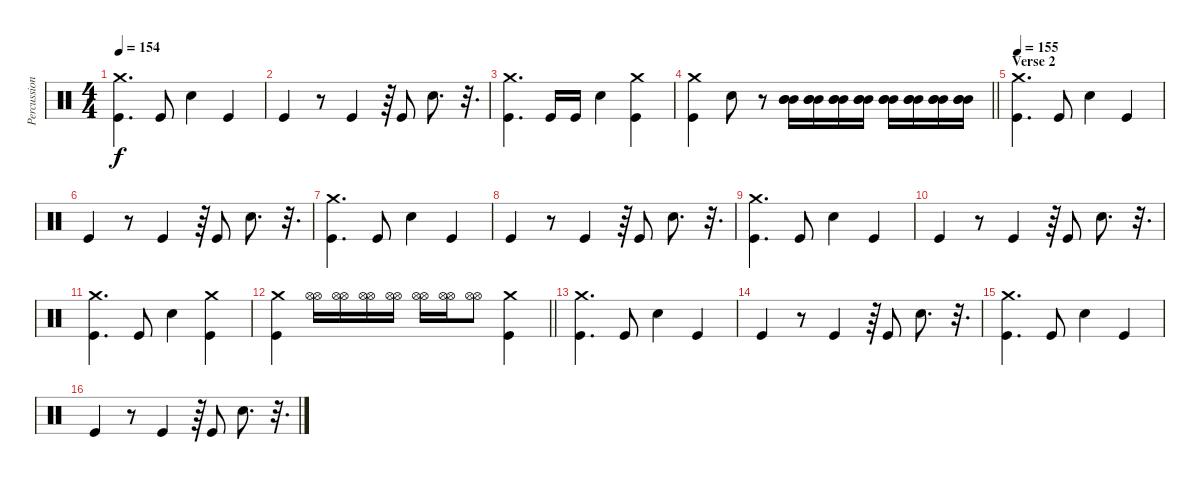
\track ("Percussion" "Percussion") {instrument percussion}
\staff {score}
\articulation defaults
\ts (4 4)
\tempo 154
\clef neutral
\ks c
("Kick (hit)" "Crash medium (hit)").4{d dy f} "Kick (hit)".8 "Electric Snare (hit)".4 "Kick (hit)".4 |
"Kick (hit)".4 r.8 "Kick (hit)".4 r.64 "Kick (hit)".8 "Electric Snare (hit)".8{d} r.32{d} |
("Kick (hit)" "Crash medium (hit)").4{d} "Kick (hit)".16 "Kick (hit)".16 "Electric Snare (hit)".4 ("Kick (hit)" "Crash medium (hit)").4 |
\barLineRight lightlight
("Kick (hit)" "Crash medium (hit)").4 "Electric Snare (hit)".8 r.8 ("Mid Tom (hit)" "Mid Tom (hit)" "Mid Tom (hit)").16 ("Mid Tom (hit)" "Mid Tom (hit)" "Mid Tom (hit)").16 ("Mid Tom (hit)" "Mid Tom (hit)" "Mid Tom (hit)").16 ("Mid Tom (hit)" "Mid Tom (hit)" "Mid Tom (hit)").16 ("Mid Tom (hit)" "Mid Tom (hit)" "Mid Tom (hit)").16 ("Mid Tom (hit)" "Mid Tom (hit)" "Mid Tom (hit)").16 ("Mid Tom (hit)" "Mid Tom (hit)" "Mid Tom (hit)").16 ("Mid Tom (hit)" "Mid Tom (hit)" "Mid Tom (hit)").16 |
\section ("" "Verse 2")
\tempo 155
("Kick (hit)" "Crash medium (hit)").4{d} "Kick (hit)".8 "Electric Snare (hit)".4 "Kick (hit)".4 |
"Kick (hit)".4 r.8 "Kick (hit)".4 r.64 "Kick (hit)".8 "Electric Snare (hit)".8{d} r.32{d} |
("Kick (hit)" "Crash medium (hit)").4{d} "Kick (hit)".8 "Electric Snare (hit)".4 "Kick (hit)".4 |
"Kick (hit)".4 r.8 "Kick (hit)".4 r.64 "Kick (hit)".8 "Electric Snare (hit)".8{d} r.32{d} |
("Kick (hit)" "Crash medium (hit)").4{d} "Kick (hit)".8 "Electric Snare (hit)".4 "Kick (hit)".4 |
"Kick (hit)".4 r.8 "Kick (hit)".4 r.64 "Kick (hit)".8 "Electric Snare (hit)".8{d} r.32{d} |
("Kick (hit)" "Crash medium (hit)").4{d} "Kick (hit)".8 "Electric Snare (hit)".4 ("Kick (hit)" "Crash medium (hit)").4 |
\barLineRight lightlight
("Kick (hit)" "Crash medium (hit)").4 ("Hi-Hat (open)" "Hi-Hat (open)").16 ("Hi-Hat (open)" "Hi-Hat (open)").16 ("Hi-Hat (open)" "Hi-Hat (open)").16 ("Hi-Hat (open)" "Hi-Hat (open)").16 ("Hi-Hat (open)" "Hi-Hat (open)").16 ("Hi-Hat (open)" "Hi-Hat (open)").16 ("Hi-Hat (open)" "Hi-Hat (open)").8 ("Kick (hit)" "Crash medium (hit)").4 |
("Kick (hit)" "Crash medium (hit)").4{d} "Kick (hit)".8 "Electric Snare (hit)".4 "Kick (hit)".4 |
"Kick (hit)".4 r.8 "Kick (hit)".4 r.64 "Kick (hit)".8 "Electric Snare (hit)".8{d} r.32{d} |
("Kick (hit)" "Crash medium (hit)").4{d} "Kick (hit)".8 "Electric Snare (hit)".4 "Kick (hit)".4 |
"Kick (hit)".4 r.8 "Kick (hit)".4 r.64 "Kick (hit)".8 "Electric Snare (hit)".8{d} r.32{d}
